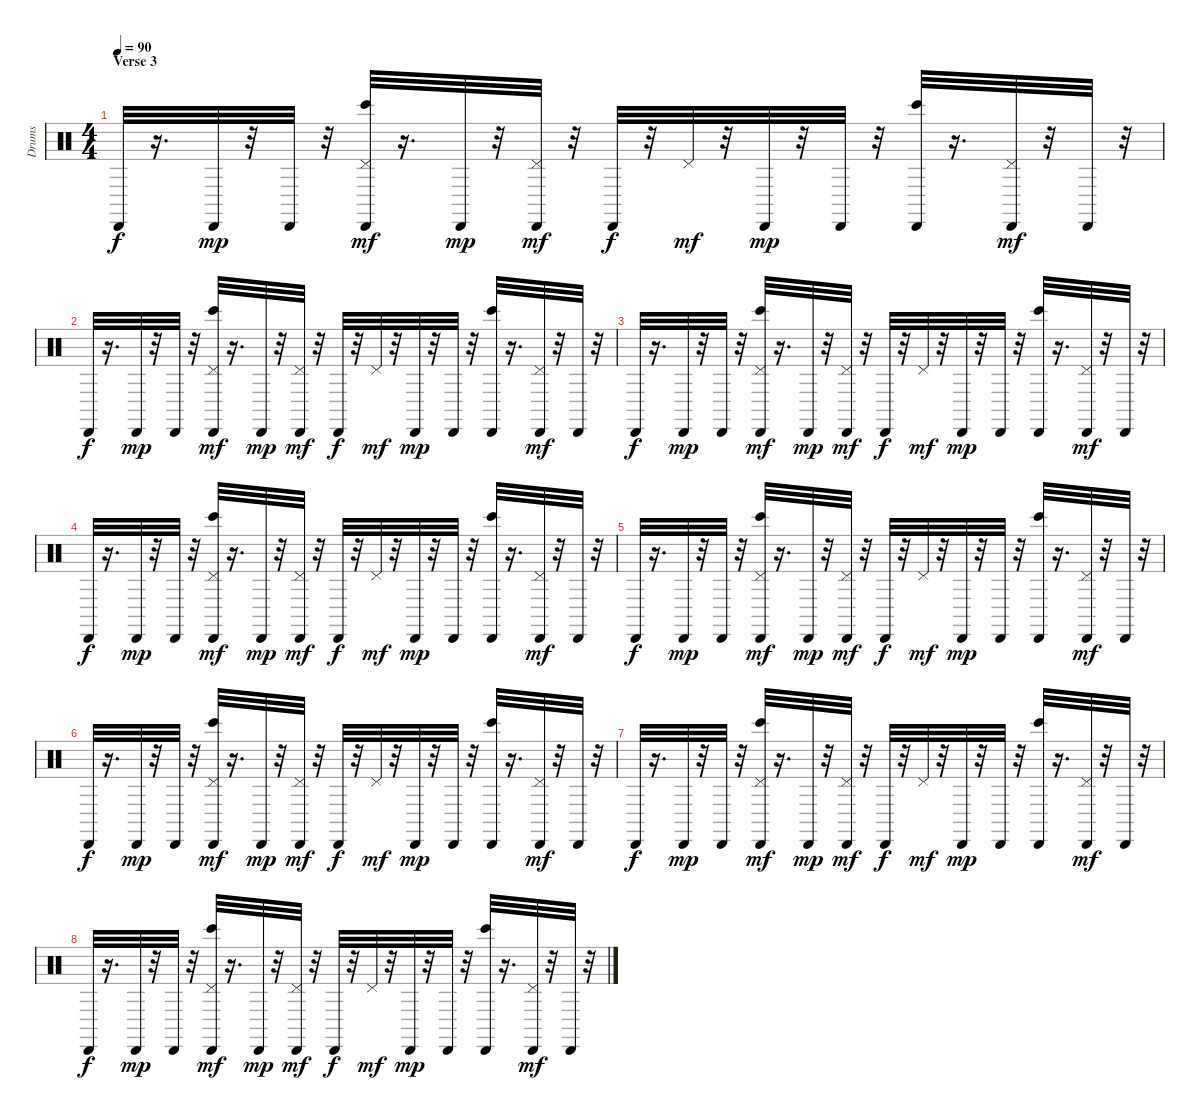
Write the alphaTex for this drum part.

\track ("Drums" "Drums") {instrument percussion}
\staff {score}
\articulation defaults
\ts (4 4)
\section ("" "Verse 3")
\tempo 90
\clef neutral
\ks c "Cabasa (hit)".32{dy f}
r.16{d} "Cabasa (hit)".32{dy mp} r.32 "Cabasa (hit)".32 r.32 ("Bongo High (hit)" "Cabasa (hit)" "Pedal Hi-Hat (hit)").32{dy mf} r.16{d} "Cabasa (hit)".32{dy mp} r.32 ("Cabasa (hit)" "Pedal Hi-Hat (hit)").32{dy mf} r.32 "Cabasa (hit)".32{dy f} r.32 "Pedal Hi-Hat (hit)".32{dy mf} r.32 "Cabasa (hit)".32{dy mp} r.32 "Cabasa (hit)".32 r.32 ("Bongo High (hit)" "Cabasa (hit)").32 r.16{d} ("Cabasa (hit)" "Pedal Hi-Hat (hit)").32{dy mf} r.32 "Cabasa (hit)".32 r.32 |
"Cabasa (hit)".32{dy f} r.16{d} "Cabasa (hit)".32{dy mp} r.32 "Cabasa (hit)".32 r.32 ("Bongo High (hit)" "Cabasa (hit)" "Pedal Hi-Hat (hit)").32{dy mf} r.16{d} "Cabasa (hit)".32{dy mp} r.32 ("Cabasa (hit)" "Pedal Hi-Hat (hit)").32{dy mf} r.32 "Cabasa (hit)".32{dy f} r.32 "Pedal Hi-Hat (hit)".32{dy mf} r.32 "Cabasa (hit)".32{dy mp} r.32 "Cabasa (hit)".32 r.32 ("Bongo High (hit)" "Cabasa (hit)").32 r.16{d} ("Cabasa (hit)" "Pedal Hi-Hat (hit)").32{dy mf} r.32 "Cabasa (hit)".32 r.32 |
"Cabasa (hit)".32{dy f} r.16{d} "Cabasa (hit)".32{dy mp} r.32 "Cabasa (hit)".32 r.32 ("Bongo High (hit)" "Cabasa (hit)" "Pedal Hi-Hat (hit)").32{dy mf} r.16{d} "Cabasa (hit)".32{dy mp} r.32 ("Cabasa (hit)" "Pedal Hi-Hat (hit)").32{dy mf} r.32 "Cabasa (hit)".32{dy f} r.32 "Pedal Hi-Hat (hit)".32{dy mf} r.32 "Cabasa (hit)".32{dy mp} r.32 "Cabasa (hit)".32 r.32 ("Bongo High (hit)" "Cabasa (hit)").32 r.16{d} ("Cabasa (hit)" "Pedal Hi-Hat (hit)").32{dy mf} r.32 "Cabasa (hit)".32 r.32 |
"Cabasa (hit)".32{dy f} r.16{d} "Cabasa (hit)".32{dy mp} r.32 "Cabasa (hit)".32 r.32 ("Bongo High (hit)" "Cabasa (hit)" "Pedal Hi-Hat (hit)").32{dy mf} r.16{d} "Cabasa (hit)".32{dy mp} r.32 ("Cabasa (hit)" "Pedal Hi-Hat (hit)").32{dy mf} r.32 "Cabasa (hit)".32{dy f} r.32 "Pedal Hi-Hat (hit)".32{dy mf} r.32 "Cabasa (hit)".32{dy mp} r.32 "Cabasa (hit)".32 r.32 ("Bongo High (hit)" "Cabasa (hit)").32 r.16{d} ("Cabasa (hit)" "Pedal Hi-Hat (hit)").32{dy mf} r.32 "Cabasa (hit)".32 r.32 |
"Cabasa (hit)".32{dy f} r.16{d} "Cabasa (hit)".32{dy mp} r.32 "Cabasa (hit)".32 r.32 ("Bongo High (hit)" "Cabasa (hit)" "Pedal Hi-Hat (hit)").32{dy mf} r.16{d} "Cabasa (hit)".32{dy mp} r.32 ("Cabasa (hit)" "Pedal Hi-Hat (hit)").32{dy mf} r.32 "Cabasa (hit)".32{dy f} r.32 "Pedal Hi-Hat (hit)".32{dy mf} r.32 "Cabasa (hit)".32{dy mp} r.32 "Cabasa (hit)".32 r.32 ("Bongo High (hit)" "Cabasa (hit)").32 r.16{d} ("Cabasa (hit)" "Pedal Hi-Hat (hit)").32{dy mf} r.32 "Cabasa (hit)".32 r.32 |
"Cabasa (hit)".32{dy f} r.16{d} "Cabasa (hit)".32{dy mp} r.32 "Cabasa (hit)".32 r.32 ("Bongo High (hit)" "Cabasa (hit)" "Pedal Hi-Hat (hit)").32{dy mf} r.16{d} "Cabasa (hit)".32{dy mp} r.32 ("Cabasa (hit)" "Pedal Hi-Hat (hit)").32{dy mf} r.32 "Cabasa (hit)".32{dy f} r.32 "Pedal Hi-Hat (hit)".32{dy mf} r.32 "Cabasa (hit)".32{dy mp} r.32 "Cabasa (hit)".32 r.32 ("Bongo High (hit)" "Cabasa (hit)").32 r.16{d} ("Cabasa (hit)" "Pedal Hi-Hat (hit)").32{dy mf} r.32 "Cabasa (hit)".32 r.32 |
"Cabasa (hit)".32{dy f} r.16{d} "Cabasa (hit)".32{dy mp} r.32 "Cabasa (hit)".32 r.32 ("Bongo High (hit)" "Cabasa (hit)" "Pedal Hi-Hat (hit)").32{dy mf} r.16{d} "Cabasa (hit)".32{dy mp} r.32 ("Cabasa (hit)" "Pedal Hi-Hat (hit)").32{dy mf} r.32 "Cabasa (hit)".32{dy f} r.32 "Pedal Hi-Hat (hit)".32{dy mf} r.32 "Cabasa (hit)".32{dy mp} r.32 "Cabasa (hit)".32 r.32 ("Bongo High (hit)" "Cabasa (hit)").32 r.16{d} ("Cabasa (hit)" "Pedal Hi-Hat (hit)").32{dy mf} r.32 "Cabasa (hit)".32 r.32 |
"Cabasa (hit)".32{dy f} r.16{d} "Cabasa (hit)".32{dy mp} r.32 "Cabasa (hit)".32 r.32 ("Bongo High (hit)" "Cabasa (hit)" "Pedal Hi-Hat (hit)").32{dy mf} r.16{d} "Cabasa (hit)".32{dy mp} r.32 ("Cabasa (hit)" "Pedal Hi-Hat (hit)").32{dy mf} r.32 "Cabasa (hit)".32{dy f} r.32 "Pedal Hi-Hat (hit)".32{dy mf} r.32 "Cabasa (hit)".32{dy mp} r.32 "Cabasa (hit)".32 r.32 ("Bongo High (hit)" "Cabasa (hit)").32 r.16{d} ("Cabasa (hit)" "Pedal Hi-Hat (hit)").32{dy mf} r.32 "Cabasa (hit)".32 r.32
